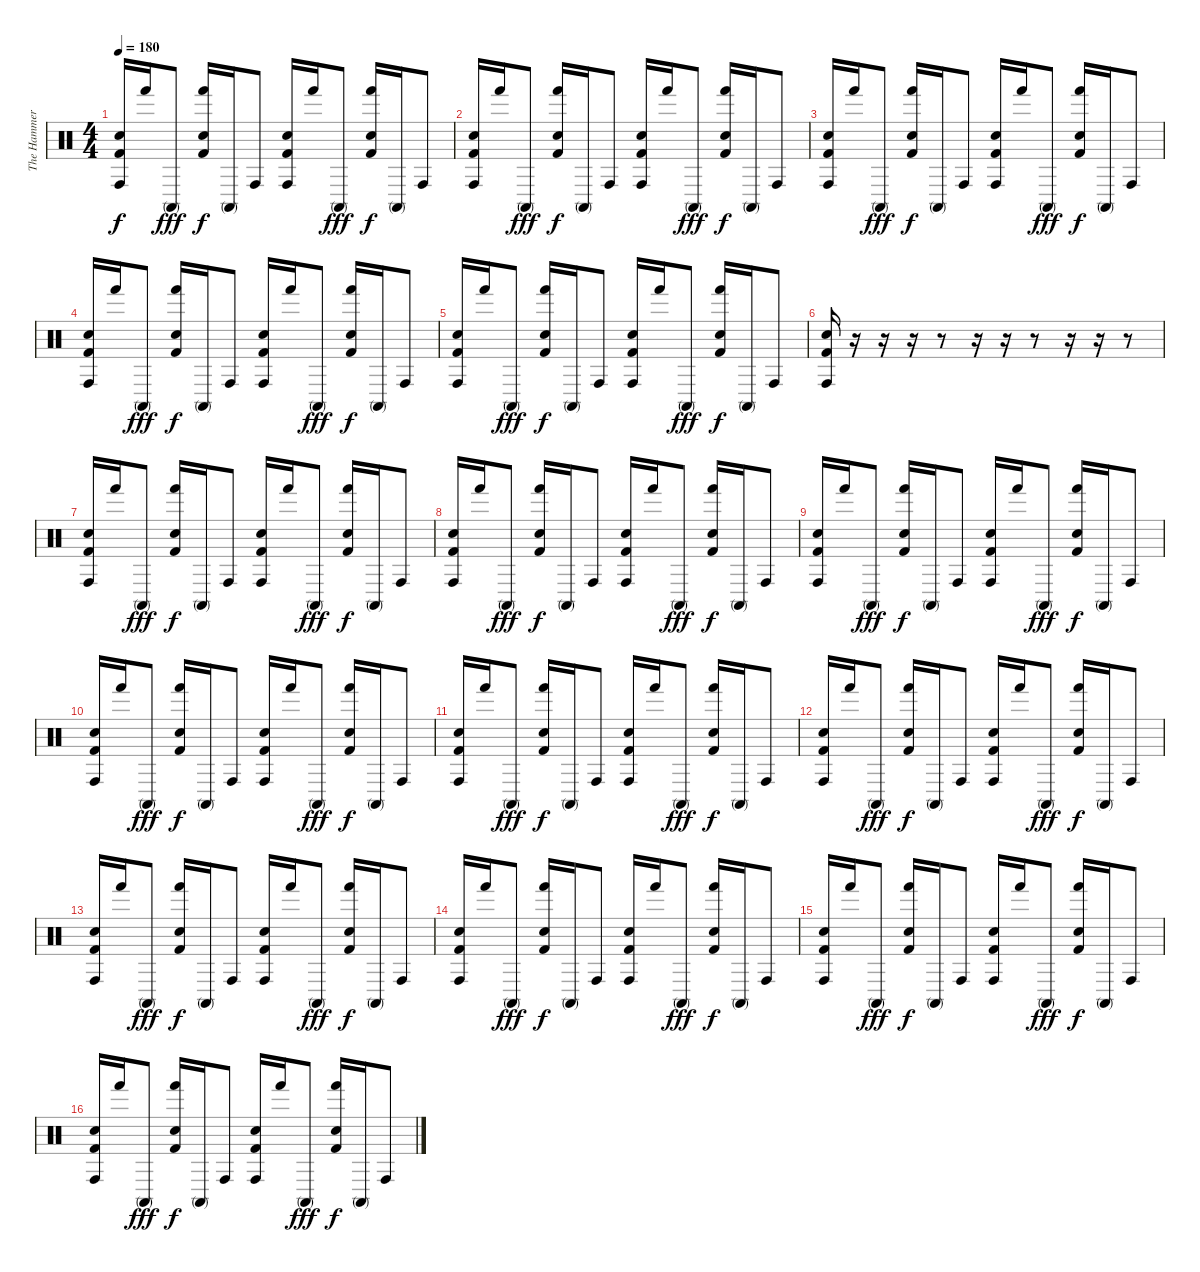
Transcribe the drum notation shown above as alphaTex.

\track ("The Hammer" "The Hammer") {instrument percussion}
\staff {score}
\articulation defaults
\ts (4 4)
\tempo 180
\clef neutral
\ks c
("Conga high (hit)" "Hand Clap (hit)" "Kick (hit) 2").16{dy f} "Hand (hit)".16 "Conga high (mute)".8{dy fff} ("Hand (hit)" "Hand Clap (hit)" "Kick (hit) 2").16{dy f} "Conga high (mute)".16 "Conga high (hit)".8 ("Conga high (hit)" "Hand Clap (hit)" "Kick (hit) 2").16 "Hand (hit)".16 "Conga high (mute)".8{dy fff} ("Hand (hit)" "Hand Clap (hit)" "Kick (hit) 2").16{dy f} "Conga high (mute)".16 "Conga high (hit)".8 |
("Conga high (hit)" "Hand Clap (hit)" "Kick (hit) 2").16 "Hand (hit)".16 "Conga high (mute)".8{dy fff} ("Hand (hit)" "Hand Clap (hit)" "Kick (hit) 2").16{dy f} "Conga high (mute)".16 "Conga high (hit)".8 ("Conga high (hit)" "Hand Clap (hit)" "Kick (hit) 2").16 "Hand (hit)".16 "Conga high (mute)".8{dy fff} ("Hand (hit)" "Hand Clap (hit)" "Kick (hit) 2").16{dy f} "Conga high (mute)".16 "Conga high (hit)".8 |
("Conga high (hit)" "Hand Clap (hit)" "Kick (hit) 2").16 "Hand (hit)".16 "Conga high (mute)".8{dy fff} ("Hand (hit)" "Hand Clap (hit)" "Kick (hit) 2").16{dy f} "Conga high (mute)".16 "Conga high (hit)".8 ("Conga high (hit)" "Hand Clap (hit)" "Kick (hit) 2").16 "Hand (hit)".16 "Conga high (mute)".8{dy fff} ("Hand (hit)" "Hand Clap (hit)" "Kick (hit) 2").16{dy f} "Conga high (mute)".16 "Conga high (hit)".8 |
("Conga high (hit)" "Hand Clap (hit)" "Kick (hit) 2").16 "Hand (hit)".16 "Conga high (mute)".8{dy fff} ("Hand (hit)" "Hand Clap (hit)" "Kick (hit) 2").16{dy f} "Conga high (mute)".16 "Conga high (hit)".8 ("Conga high (hit)" "Hand Clap (hit)" "Kick (hit) 2").16 "Hand (hit)".16 "Conga high (mute)".8{dy fff} ("Hand (hit)" "Hand Clap (hit)" "Kick (hit) 2").16{dy f} "Conga high (mute)".16 "Conga high (hit)".8 |
("Conga high (hit)" "Hand Clap (hit)" "Kick (hit) 2").16 "Hand (hit)".16 "Conga high (mute)".8{dy fff} ("Hand (hit)" "Hand Clap (hit)" "Kick (hit) 2").16{dy f} "Conga high (mute)".16 "Conga high (hit)".8 ("Conga high (hit)" "Hand Clap (hit)" "Kick (hit) 2").16 "Hand (hit)".16 "Conga high (mute)".8{dy fff} ("Hand (hit)" "Hand Clap (hit)" "Kick (hit) 2").16{dy f} "Conga high (mute)".16 "Conga high (hit)".8 |
("Conga high (hit)" "Hand Clap (hit)" "Kick (hit) 2").16 r.16 r.16 r.16 r.8 r.16 r.16 r.8 r.16 r.16 r.8 |
("Conga high (hit)" "Hand Clap (hit)" "Kick (hit) 2").16 "Hand (hit)".16 "Conga high (mute)".8{dy fff} ("Hand (hit)" "Hand Clap (hit)" "Kick (hit) 2").16{dy f} "Conga high (mute)".16 "Conga high (hit)".8 ("Conga high (hit)" "Hand Clap (hit)" "Kick (hit) 2").16 "Hand (hit)".16 "Conga high (mute)".8{dy fff} ("Hand (hit)" "Hand Clap (hit)" "Kick (hit) 2").16{dy f} "Conga high (mute)".16 "Conga high (hit)".8 |
("Conga high (hit)" "Hand Clap (hit)" "Kick (hit) 2").16 "Hand (hit)".16 "Conga high (mute)".8{dy fff} ("Hand (hit)" "Hand Clap (hit)" "Kick (hit) 2").16{dy f} "Conga high (mute)".16 "Conga high (hit)".8 ("Conga high (hit)" "Hand Clap (hit)" "Kick (hit) 2").16 "Hand (hit)".16 "Conga high (mute)".8{dy fff} ("Hand (hit)" "Hand Clap (hit)" "Kick (hit) 2").16{dy f} "Conga high (mute)".16 "Conga high (hit)".8 |
("Conga high (hit)" "Hand Clap (hit)" "Kick (hit) 2").16 "Hand (hit)".16 "Conga high (mute)".8{dy fff} ("Hand (hit)" "Hand Clap (hit)" "Kick (hit) 2").16{dy f} "Conga high (mute)".16 "Conga high (hit)".8 ("Conga high (hit)" "Hand Clap (hit)" "Kick (hit) 2").16 "Hand (hit)".16 "Conga high (mute)".8{dy fff} ("Hand (hit)" "Hand Clap (hit)" "Kick (hit) 2").16{dy f} "Conga high (mute)".16 "Conga high (hit)".8 |
("Conga high (hit)" "Hand Clap (hit)" "Kick (hit) 2").16 "Hand (hit)".16 "Conga high (mute)".8{dy fff} ("Hand (hit)" "Hand Clap (hit)" "Kick (hit) 2").16{dy f} "Conga high (mute)".16 "Conga high (hit)".8 ("Conga high (hit)" "Hand Clap (hit)" "Kick (hit) 2").16 "Hand (hit)".16 "Conga high (mute)".8{dy fff} ("Hand (hit)" "Hand Clap (hit)" "Kick (hit) 2").16{dy f} "Conga high (mute)".16 "Conga high (hit)".8 |
("Conga high (hit)" "Hand Clap (hit)" "Kick (hit) 2").16 "Hand (hit)".16 "Conga high (mute)".8{dy fff} ("Hand (hit)" "Hand Clap (hit)" "Kick (hit) 2").16{dy f} "Conga high (mute)".16 "Conga high (hit)".8 ("Conga high (hit)" "Hand Clap (hit)" "Kick (hit) 2").16 "Hand (hit)".16 "Conga high (mute)".8{dy fff} ("Hand (hit)" "Hand Clap (hit)" "Kick (hit) 2").16{dy f} "Conga high (mute)".16 "Conga high (hit)".8 |
("Conga high (hit)" "Hand Clap (hit)" "Kick (hit) 2").16 "Hand (hit)".16 "Conga high (mute)".8{dy fff} ("Hand (hit)" "Hand Clap (hit)" "Kick (hit) 2").16{dy f} "Conga high (mute)".16 "Conga high (hit)".8 ("Conga high (hit)" "Hand Clap (hit)" "Kick (hit) 2").16 "Hand (hit)".16 "Conga high (mute)".8{dy fff} ("Hand (hit)" "Hand Clap (hit)" "Kick (hit) 2").16{dy f} "Conga high (mute)".16 "Conga high (hit)".8 |
("Conga high (hit)" "Hand Clap (hit)" "Kick (hit) 2").16 "Hand (hit)".16 "Conga high (mute)".8{dy fff} ("Hand (hit)" "Hand Clap (hit)" "Kick (hit) 2").16{dy f} "Conga high (mute)".16 "Conga high (hit)".8 ("Conga high (hit)" "Hand Clap (hit)" "Kick (hit) 2").16 "Hand (hit)".16 "Conga high (mute)".8{dy fff} ("Hand (hit)" "Hand Clap (hit)" "Kick (hit) 2").16{dy f} "Conga high (mute)".16 "Conga high (hit)".8 |
("Conga high (hit)" "Hand Clap (hit)" "Kick (hit) 2").16 "Hand (hit)".16 "Conga high (mute)".8{dy fff} ("Hand (hit)" "Hand Clap (hit)" "Kick (hit) 2").16{dy f} "Conga high (mute)".16 "Conga high (hit)".8 ("Conga high (hit)" "Hand Clap (hit)" "Kick (hit) 2").16 "Hand (hit)".16 "Conga high (mute)".8{dy fff} ("Hand (hit)" "Hand Clap (hit)" "Kick (hit) 2").16{dy f} "Conga high (mute)".16 "Conga high (hit)".8 |
("Conga high (hit)" "Hand Clap (hit)" "Kick (hit) 2").16 "Hand (hit)".16 "Conga high (mute)".8{dy fff} ("Hand (hit)" "Hand Clap (hit)" "Kick (hit) 2").16{dy f} "Conga high (mute)".16 "Conga high (hit)".8 ("Conga high (hit)" "Hand Clap (hit)" "Kick (hit) 2").16 "Hand (hit)".16 "Conga high (mute)".8{dy fff} ("Hand (hit)" "Hand Clap (hit)" "Kick (hit) 2").16{dy f} "Conga high (mute)".16 "Conga high (hit)".8 |
("Conga high (hit)" "Hand Clap (hit)" "Kick (hit) 2").16 "Hand (hit)".16 "Conga high (mute)".8{dy fff} ("Hand (hit)" "Hand Clap (hit)" "Kick (hit) 2").16{dy f} "Conga high (mute)".16 "Conga high (hit)".8 ("Conga high (hit)" "Hand Clap (hit)" "Kick (hit) 2").16 "Hand (hit)".16 "Conga high (mute)".8{dy fff} ("Hand (hit)" "Hand Clap (hit)" "Kick (hit) 2").16{dy f} "Conga high (mute)".16 "Conga high (hit)".8
